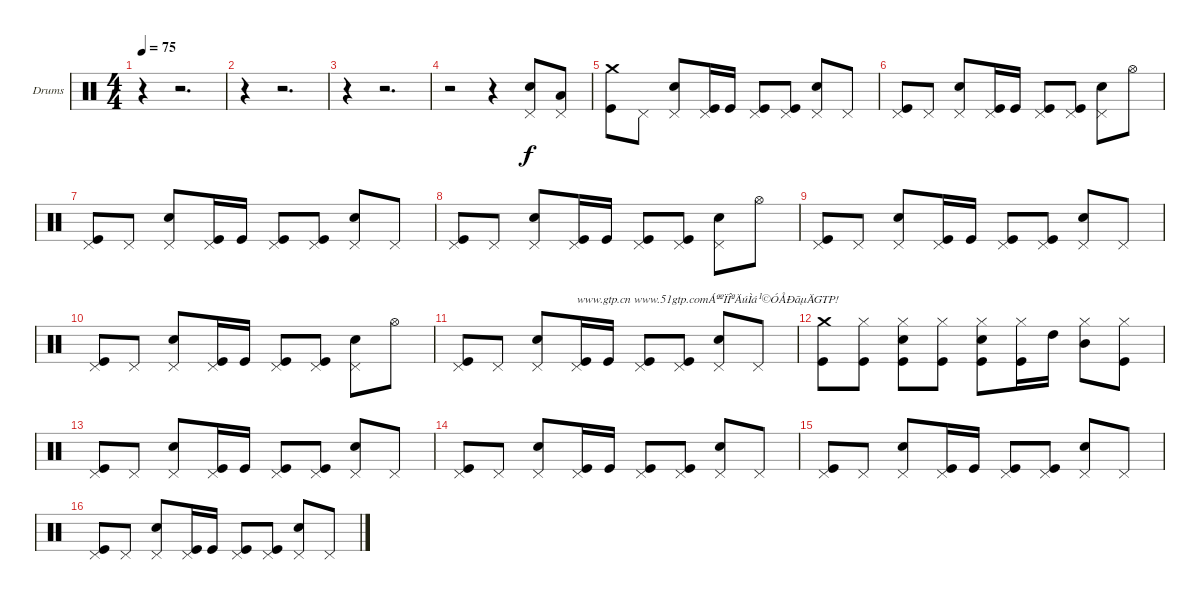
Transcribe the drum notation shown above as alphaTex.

\bracketExtendMode groupsimilarinstruments
\firstSystemTrackNameOrientation horizontal
\otherSystemsTrackNameOrientation horizontal
\track ("Drumkit" "Drums") {instrument percussion}
\staff {score}
\articulation defaults
\ts (4 4)
\tempo 75
\clef neutral
\ks c
r.4{dy f} r.2{d} |
r.4 r.2{d} |
r.4 r.2{d} |
r.2 r.4 ("Pedal Hi-Hat (hit)" "Snare (hit) 2").8 ("Pedal Hi-Hat (hit)" "Low Tom (hit)").8 |
("Crash medium (hit)" "Kick (hit)").8 "Pedal Hi-Hat (hit)".8 ("Pedal Hi-Hat (hit)" "Snare (hit) 2").8 ("Pedal Hi-Hat (hit)" "Kick (hit)").16 "Kick (hit)".16 ("Pedal Hi-Hat (hit)" "Kick (hit)").8 ("Pedal Hi-Hat (hit)" "Kick (hit)").8 ("Pedal Hi-Hat (hit)" "Snare (hit) 2").8 "Pedal Hi-Hat (hit)".8 |
("Pedal Hi-Hat (hit)" "Kick (hit)").8 "Pedal Hi-Hat (hit)".8 ("Pedal Hi-Hat (hit)" "Snare (hit) 2").8 ("Pedal Hi-Hat (hit)" "Kick (hit)").16 "Kick (hit)".16 ("Pedal Hi-Hat (hit)" "Kick (hit)").8 ("Pedal Hi-Hat (hit)" "Kick (hit)").8 ("Pedal Hi-Hat (hit)" "Snare (hit) 2").8 "Hi-Hat (open)".8 |
("Pedal Hi-Hat (hit)" "Kick (hit)").8 "Pedal Hi-Hat (hit)".8 ("Pedal Hi-Hat (hit)" "Snare (hit) 2").8 ("Pedal Hi-Hat (hit)" "Kick (hit)").16 "Kick (hit)".16 ("Pedal Hi-Hat (hit)" "Kick (hit)").8 ("Pedal Hi-Hat (hit)" "Kick (hit)").8 ("Pedal Hi-Hat (hit)" "Snare (hit) 2").8 "Pedal Hi-Hat (hit)".8 |
("Pedal Hi-Hat (hit)" "Kick (hit)").8 "Pedal Hi-Hat (hit)".8 ("Pedal Hi-Hat (hit)" "Snare (hit) 2").8 ("Pedal Hi-Hat (hit)" "Kick (hit)").16 "Kick (hit)".16 ("Pedal Hi-Hat (hit)" "Kick (hit)").8 ("Pedal Hi-Hat (hit)" "Kick (hit)").8 ("Pedal Hi-Hat (hit)" "Snare (hit) 2").8 "Hi-Hat (open)".8 |
("Pedal Hi-Hat (hit)" "Kick (hit)").8 "Pedal Hi-Hat (hit)".8 ("Pedal Hi-Hat (hit)" "Snare (hit) 2").8 ("Pedal Hi-Hat (hit)" "Kick (hit)").16 "Kick (hit)".16 ("Pedal Hi-Hat (hit)" "Kick (hit)").8 ("Pedal Hi-Hat (hit)" "Kick (hit)").8 ("Pedal Hi-Hat (hit)" "Snare (hit) 2").8 "Pedal Hi-Hat (hit)".8 |
("Pedal Hi-Hat (hit)" "Kick (hit)").8 "Pedal Hi-Hat (hit)".8 ("Pedal Hi-Hat (hit)" "Snare (hit) 2").8 ("Pedal Hi-Hat (hit)" "Kick (hit)").16 "Kick (hit)".16 ("Pedal Hi-Hat (hit)" "Kick (hit)").8 ("Pedal Hi-Hat (hit)" "Kick (hit)").8 ("Pedal Hi-Hat (hit)" "Snare (hit) 2").8 "Hi-Hat (open)".8 |
("Pedal Hi-Hat (hit)" "Kick (hit)").8 "Pedal Hi-Hat (hit)".8 ("Pedal Hi-Hat (hit)" "Snare (hit) 2").8 ("Pedal Hi-Hat (hit)" "Kick (hit)").16{txt "www.gtp.cn www.51gtp.comÁªºÏÎªÄúÌá¹©ÓÅÐãµÄGTP!"} "Kick (hit)".16 ("Pedal Hi-Hat (hit)" "Kick (hit)").8 ("Pedal Hi-Hat (hit)" "Kick (hit)").8 ("Pedal Hi-Hat (hit)" "Snare (hit) 2").8 "Pedal Hi-Hat (hit)".8 |
("Crash medium (hit)" "Kick (hit)").8 ("Hi-Hat (closed)" "Kick (hit)").8 ("Hi-Hat (closed)" "Snare (hit) 2" "Kick (hit)").8 ("Hi-Hat (closed)" "Kick (hit)").8 ("Hi-Hat (closed)" "Snare (hit) 2" "Kick (hit)").8 ("Hi-Hat (closed)" "Kick (hit)").16 "High Tom (hit)".16 ("Hi-Hat (closed)" "Mid Tom (hit)").8 ("Hi-Hat (closed)" "Kick (hit)").8 |
("Pedal Hi-Hat (hit)" "Kick (hit)").8 "Pedal Hi-Hat (hit)".8 ("Pedal Hi-Hat (hit)" "Snare (hit) 2").8 ("Pedal Hi-Hat (hit)" "Kick (hit)").16 "Kick (hit)".16 ("Pedal Hi-Hat (hit)" "Kick (hit)").8 ("Pedal Hi-Hat (hit)" "Kick (hit)").8 ("Pedal Hi-Hat (hit)" "Snare (hit) 2").8 "Pedal Hi-Hat (hit)".8 |
("Pedal Hi-Hat (hit)" "Kick (hit)").8 "Pedal Hi-Hat (hit)".8 ("Pedal Hi-Hat (hit)" "Snare (hit) 2").8 ("Pedal Hi-Hat (hit)" "Kick (hit)").16 "Kick (hit)".16 ("Pedal Hi-Hat (hit)" "Kick (hit)").8 ("Pedal Hi-Hat (hit)" "Kick (hit)").8 ("Pedal Hi-Hat (hit)" "Snare (hit) 2").8 "Pedal Hi-Hat (hit)".8 |
("Pedal Hi-Hat (hit)" "Kick (hit)").8 "Pedal Hi-Hat (hit)".8 ("Pedal Hi-Hat (hit)" "Snare (hit) 2").8 ("Pedal Hi-Hat (hit)" "Kick (hit)").16 "Kick (hit)".16 ("Pedal Hi-Hat (hit)" "Kick (hit)").8 ("Pedal Hi-Hat (hit)" "Kick (hit)").8 ("Pedal Hi-Hat (hit)" "Snare (hit) 2").8 "Pedal Hi-Hat (hit)".8 |
("Pedal Hi-Hat (hit)" "Kick (hit)").8 "Pedal Hi-Hat (hit)".8 ("Pedal Hi-Hat (hit)" "Snare (hit) 2").8 ("Pedal Hi-Hat (hit)" "Kick (hit)").16 "Kick (hit)".16 ("Pedal Hi-Hat (hit)" "Kick (hit)").8 ("Pedal Hi-Hat (hit)" "Kick (hit)").8 ("Pedal Hi-Hat (hit)" "Snare (hit) 2").8 "Pedal Hi-Hat (hit)".8
